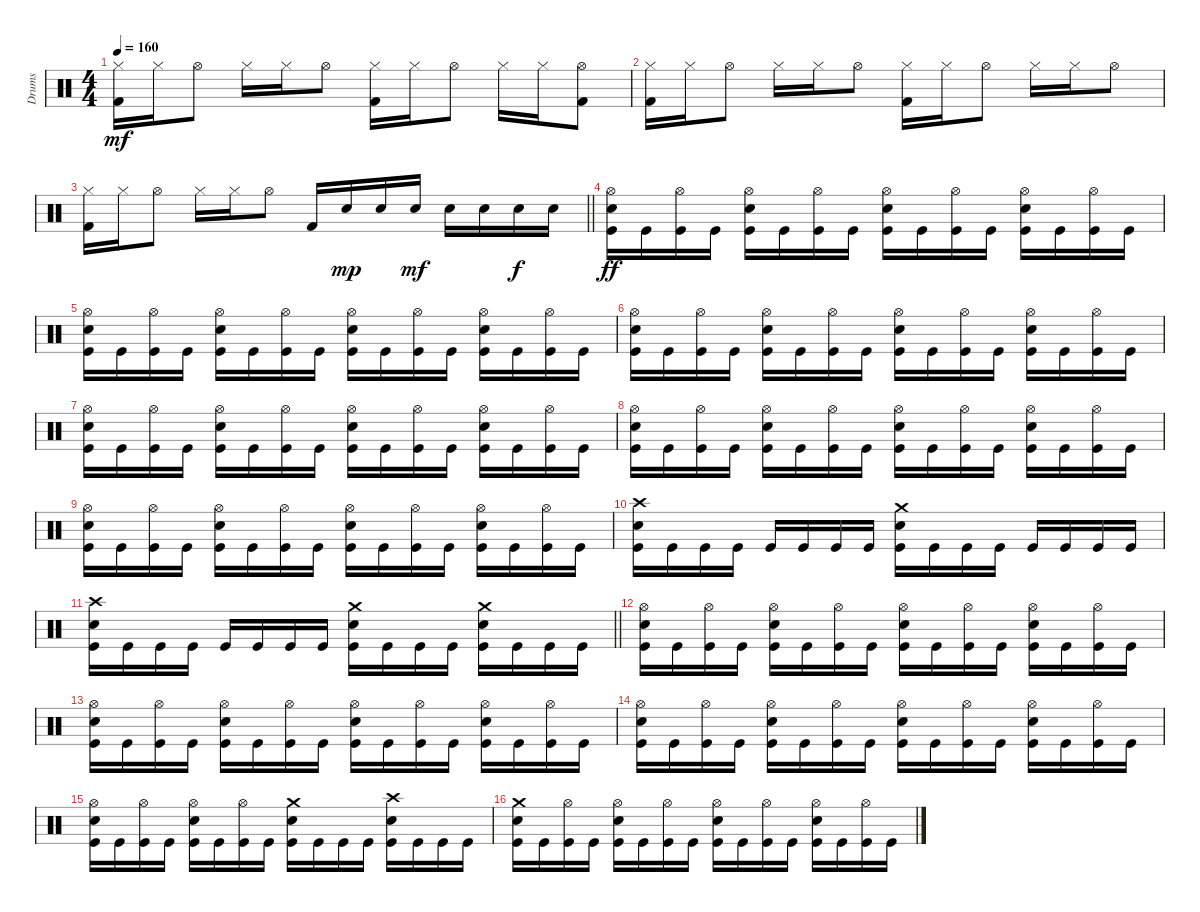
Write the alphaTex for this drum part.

\track ("Drums" "Drums") {instrument percussion bank 127}
\staff {score}
\articulation defaults
\ts (4 4)
\tempo 160
\clef neutral
\ks c
("Hi-Hat (closed)" "Kick (hit) 2").16{dy mf} "Hi-Hat (closed)".16 "Hi-Hat (open)".8 "Hi-Hat (closed)".16 "Hi-Hat (closed)".16 "Hi-Hat (open)".8 ("Hi-Hat (closed)" "Kick (hit) 2").16 "Hi-Hat (closed)".16 "Hi-Hat (open)".8 "Hi-Hat (closed)".16 "Hi-Hat (closed)".16 ("Hi-Hat (open)" "Kick (hit) 2").8 |
("Hi-Hat (closed)" "Kick (hit) 2").16 "Hi-Hat (closed)".16 "Hi-Hat (open)".8 "Hi-Hat (closed)".16 "Hi-Hat (closed)".16 "Hi-Hat (open)".8 ("Hi-Hat (closed)" "Kick (hit) 2").16 "Hi-Hat (closed)".16 "Hi-Hat (open)".8 "Hi-Hat (closed)".16 "Hi-Hat (closed)".16 "Hi-Hat (open)".8 |
\barLineRight lightlight
("Hi-Hat (closed)" "Kick (hit) 2").16 "Hi-Hat (closed)".16 "Hi-Hat (open)".8 "Hi-Hat (closed)".16 "Hi-Hat (closed)".16 "Hi-Hat (open)".8 "Kick (hit) 2".16 "Snare (hit) 2".16{dy mp} "Snare (hit) 2".16 "Snare (hit) 2".16{dy mf} "Snare (hit) 2".16 "Snare (hit) 2".16 "Snare (hit) 2".16{dy f} "Snare (hit) 2".16 |
("Hi-Hat (open)" "Snare (hit) 2" "Kick (hit)").16{dy ff} "Kick (hit)".16 ("Hi-Hat (open)" "Kick (hit)").16 "Kick (hit)".16 ("Hi-Hat (open)" "Snare (hit) 2" "Kick (hit)").16 "Kick (hit)".16 ("Hi-Hat (open)" "Kick (hit)").16 "Kick (hit)".16 ("Hi-Hat (open)" "Snare (hit) 2" "Kick (hit)").16 "Kick (hit)".16 ("Hi-Hat (open)" "Kick (hit)").16 "Kick (hit)".16 ("Hi-Hat (open)" "Snare (hit) 2" "Kick (hit)").16 "Kick (hit)".16 ("Hi-Hat (open)" "Kick (hit)").16 "Kick (hit)".16 |
("Hi-Hat (open)" "Snare (hit) 2" "Kick (hit)").16 "Kick (hit)".16 ("Hi-Hat (open)" "Kick (hit)").16 "Kick (hit)".16 ("Hi-Hat (open)" "Snare (hit) 2" "Kick (hit)").16 "Kick (hit)".16 ("Hi-Hat (open)" "Kick (hit)").16 "Kick (hit)".16 ("Hi-Hat (open)" "Snare (hit) 2" "Kick (hit)").16 "Kick (hit)".16 ("Hi-Hat (open)" "Kick (hit)").16 "Kick (hit)".16 ("Hi-Hat (open)" "Snare (hit) 2" "Kick (hit)").16 "Kick (hit)".16 ("Hi-Hat (open)" "Kick (hit)").16 "Kick (hit)".16 |
("Hi-Hat (open)" "Snare (hit) 2" "Kick (hit)").16 "Kick (hit)".16 ("Hi-Hat (open)" "Kick (hit)").16 "Kick (hit)".16 ("Hi-Hat (open)" "Snare (hit) 2" "Kick (hit)").16 "Kick (hit)".16 ("Hi-Hat (open)" "Kick (hit)").16 "Kick (hit)".16 ("Hi-Hat (open)" "Snare (hit) 2" "Kick (hit)").16 "Kick (hit)".16 ("Hi-Hat (open)" "Kick (hit)").16 "Kick (hit)".16 ("Hi-Hat (open)" "Snare (hit) 2" "Kick (hit)").16 "Kick (hit)".16 ("Hi-Hat (open)" "Kick (hit)").16 "Kick (hit)".16 |
("Hi-Hat (open)" "Snare (hit) 2" "Kick (hit)").16 "Kick (hit)".16 ("Hi-Hat (open)" "Kick (hit)").16 "Kick (hit)".16 ("Hi-Hat (open)" "Snare (hit) 2" "Kick (hit)").16 "Kick (hit)".16 ("Hi-Hat (open)" "Kick (hit)").16 "Kick (hit)".16 ("Hi-Hat (open)" "Snare (hit) 2" "Kick (hit)").16 "Kick (hit)".16 ("Hi-Hat (open)" "Kick (hit)").16 "Kick (hit)".16 ("Hi-Hat (open)" "Snare (hit) 2" "Kick (hit)").16 "Kick (hit)".16 ("Hi-Hat (open)" "Kick (hit)").16 "Kick (hit)".16 |
("Hi-Hat (open)" "Snare (hit) 2" "Kick (hit)").16 "Kick (hit)".16 ("Hi-Hat (open)" "Kick (hit)").16 "Kick (hit)".16 ("Hi-Hat (open)" "Snare (hit) 2" "Kick (hit)").16 "Kick (hit)".16 ("Hi-Hat (open)" "Kick (hit)").16 "Kick (hit)".16 ("Hi-Hat (open)" "Snare (hit) 2" "Kick (hit)").16 "Kick (hit)".16 ("Hi-Hat (open)" "Kick (hit)").16 "Kick (hit)".16 ("Hi-Hat (open)" "Snare (hit) 2" "Kick (hit)").16 "Kick (hit)".16 ("Hi-Hat (open)" "Kick (hit)").16 "Kick (hit)".16 |
("Hi-Hat (open)" "Snare (hit) 2" "Kick (hit)").16 "Kick (hit)".16 ("Hi-Hat (open)" "Kick (hit)").16 "Kick (hit)".16 ("Hi-Hat (open)" "Snare (hit) 2" "Kick (hit)").16 "Kick (hit)".16 ("Hi-Hat (open)" "Kick (hit)").16 "Kick (hit)".16 ("Hi-Hat (open)" "Snare (hit) 2" "Kick (hit)").16 "Kick (hit)".16 ("Hi-Hat (open)" "Kick (hit)").16 "Kick (hit)".16 ("Hi-Hat (open)" "Snare (hit) 2" "Kick (hit)").16 "Kick (hit)".16 ("Hi-Hat (open)" "Kick (hit)").16 "Kick (hit)".16 |
("Crash high (hit)" "Snare (hit) 2" "Kick (hit)").16 "Kick (hit)".16 "Kick (hit)".16 "Kick (hit)".16 "Kick (hit)".16 "Kick (hit)".16 "Kick (hit)".16 "Kick (hit)".16 ("Crash medium (hit)" "Snare (hit) 2" "Kick (hit)").16 "Kick (hit)".16 "Kick (hit)".16 "Kick (hit)".16 "Kick (hit)".16 "Kick (hit)".16 "Kick (hit)".16 "Kick (hit)".16 |
\barLineRight lightlight
("Crash high (hit)" "Snare (hit) 2" "Kick (hit)").16 "Kick (hit)".16 "Kick (hit)".16 "Kick (hit)".16 "Kick (hit)".16 "Kick (hit)".16 "Kick (hit)".16 "Kick (hit)".16 ("Crash medium (hit)" "Snare (hit) 2" "Kick (hit)").16 "Kick (hit)".16 "Kick (hit)".16 "Kick (hit)".16 ("Crash medium (hit)" "Snare (hit) 2" "Kick (hit)").16 "Kick (hit)".16 "Kick (hit)".16 "Kick (hit)".16 |
("Hi-Hat (open)" "Snare (hit) 2" "Kick (hit)").16 "Kick (hit)".16 ("Hi-Hat (open)" "Kick (hit)").16 "Kick (hit)".16 ("Hi-Hat (open)" "Snare (hit) 2" "Kick (hit)").16 "Kick (hit)".16 ("Hi-Hat (open)" "Kick (hit)").16 "Kick (hit)".16 ("Hi-Hat (open)" "Snare (hit) 2" "Kick (hit)").16 "Kick (hit)".16 ("Hi-Hat (open)" "Kick (hit)").16 "Kick (hit)".16 ("Hi-Hat (open)" "Snare (hit) 2" "Kick (hit)").16 "Kick (hit)".16 ("Hi-Hat (open)" "Kick (hit)").16 "Kick (hit)".16 |
("Hi-Hat (open)" "Snare (hit) 2" "Kick (hit)").16 "Kick (hit)".16 ("Hi-Hat (open)" "Kick (hit)").16 "Kick (hit)".16 ("Hi-Hat (open)" "Snare (hit) 2" "Kick (hit)").16 "Kick (hit)".16 ("Hi-Hat (open)" "Kick (hit)").16 "Kick (hit)".16 ("Hi-Hat (open)" "Snare (hit) 2" "Kick (hit)").16 "Kick (hit)".16 ("Hi-Hat (open)" "Kick (hit)").16 "Kick (hit)".16 ("Hi-Hat (open)" "Snare (hit) 2" "Kick (hit)").16 "Kick (hit)".16 ("Hi-Hat (open)" "Kick (hit)").16 "Kick (hit)".16 |
("Hi-Hat (open)" "Snare (hit) 2" "Kick (hit)").16 "Kick (hit)".16 ("Hi-Hat (open)" "Kick (hit)").16 "Kick (hit)".16 ("Hi-Hat (open)" "Snare (hit) 2" "Kick (hit)").16 "Kick (hit)".16 ("Hi-Hat (open)" "Kick (hit)").16 "Kick (hit)".16 ("Hi-Hat (open)" "Snare (hit) 2" "Kick (hit)").16 "Kick (hit)".16 ("Hi-Hat (open)" "Kick (hit)").16 "Kick (hit)".16 ("Hi-Hat (open)" "Snare (hit) 2" "Kick (hit)").16 "Kick (hit)".16 ("Hi-Hat (open)" "Kick (hit)").16 "Kick (hit)".16 |
("Hi-Hat (open)" "Snare (hit) 2" "Kick (hit)").16 "Kick (hit)".16 ("Hi-Hat (open)" "Kick (hit)").16 "Kick (hit)".16 ("Hi-Hat (open)" "Snare (hit) 2" "Kick (hit)").16 "Kick (hit)".16 ("Hi-Hat (open)" "Kick (hit)").16 "Kick (hit)".16 ("Crash medium (hit)" "Snare (hit) 2" "Kick (hit)").16 "Kick (hit)".16 "Kick (hit)".16 "Kick (hit)".16 ("Crash high (hit)" "Snare (hit) 2" "Kick (hit)").16 "Kick (hit)".16 "Kick (hit)".16 "Kick (hit)".16 |
("Crash medium (hit)" "Snare (hit) 2" "Kick (hit)").16 "Kick (hit)".16 ("Hi-Hat (open)" "Kick (hit)").16 "Kick (hit)".16 ("Hi-Hat (open)" "Snare (hit) 2" "Kick (hit)").16 "Kick (hit)".16 ("Hi-Hat (open)" "Kick (hit)").16 "Kick (hit)".16 ("Hi-Hat (open)" "Snare (hit) 2" "Kick (hit)").16 "Kick (hit)".16 ("Hi-Hat (open)" "Kick (hit)").16 "Kick (hit)".16 ("Hi-Hat (open)" "Snare (hit) 2" "Kick (hit)").16 "Kick (hit)".16 ("Hi-Hat (open)" "Kick (hit)").16 "Kick (hit)".16
